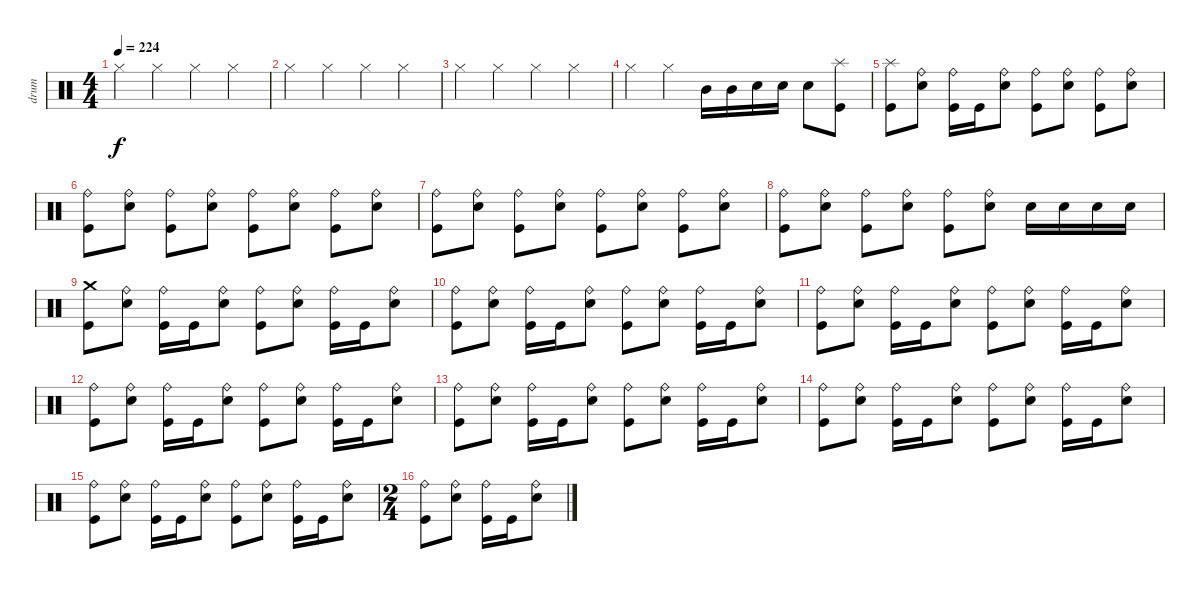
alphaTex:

\track ("drum" "drum") {instrument percussion}
\staff {score}
\articulation defaults
\ts (4 4)
\tempo 224
\clef neutral
\ks c "Hi-Hat (closed)".4{dy f volume 8} "Hi-Hat (closed)".4 "Hi-Hat (closed)".4 "Hi-Hat (closed)".4
|
"Hi-Hat (closed)".4 "Hi-Hat (closed)".4 "Hi-Hat (closed)".4 "Hi-Hat (closed)".4 |
"Hi-Hat (closed)".4 "Hi-Hat (closed)".4 "Hi-Hat (closed)".4 "Hi-Hat (closed)".4 |
"Hi-Hat (closed)".4 "Hi-Hat (closed)".4 "Mid Tom (hit)".16 "Mid Tom (hit)".16 "Electric Snare (hit)".16 "Electric Snare (hit)".16 "Electric Snare (hit)".8 ("Kick (hit)" "Splash (hit)").8 |
("Kick (hit)" "Splash (hit)").8 ("Electric Snare (hit)" "Ride (bell)").8 ("Kick (hit)" "Ride (bell)").16 "Kick (hit)".16 ("Electric Snare (hit)" "Ride (bell)").8 ("Kick (hit)" "Ride (bell)").8 ("Electric Snare (hit)" "Ride (bell)").8 ("Kick (hit)" "Ride (bell)").8 ("Electric Snare (hit)" "Ride (bell)").8 |
("Kick (hit)" "Ride (bell)").8 ("Electric Snare (hit)" "Ride (bell)").8 ("Kick (hit)" "Ride (bell)").8 ("Electric Snare (hit)" "Ride (bell)").8 ("Kick (hit)" "Ride (bell)").8 ("Electric Snare (hit)" "Ride (bell)").8 ("Kick (hit)" "Ride (bell)").8 ("Electric Snare (hit)" "Ride (bell)").8 |
("Kick (hit)" "Ride (bell)").8 ("Electric Snare (hit)" "Ride (bell)").8 ("Kick (hit)" "Ride (bell)").8 ("Electric Snare (hit)" "Ride (bell)").8 ("Kick (hit)" "Ride (bell)").8 ("Electric Snare (hit)" "Ride (bell)").8 ("Kick (hit)" "Ride (bell)").8 ("Electric Snare (hit)" "Ride (bell)").8 |
("Kick (hit)" "Ride (bell)").8 ("Electric Snare (hit)" "Ride (bell)").8 ("Kick (hit)" "Ride (bell)").8 ("Electric Snare (hit)" "Ride (bell)").8 ("Kick (hit)" "Ride (bell)").8 ("Electric Snare (hit)" "Ride (bell)").8 "Electric Snare (hit)".16 "Electric Snare (hit)".16 "Electric Snare (hit)".16 "Electric Snare (hit)".16 |
("Kick (hit)" "Crash medium (hit)").8 ("Electric Snare (hit)" "Ride (bell)").8 ("Kick (hit)" "Ride (bell)").16 "Kick (hit)".16 ("Electric Snare (hit)" "Ride (bell)").8 ("Kick (hit)" "Ride (bell)").8 ("Electric Snare (hit)" "Ride (bell)").8 ("Kick (hit)" "Ride (bell)").16 "Kick (hit)".16 ("Electric Snare (hit)" "Ride (bell)").8 |
("Kick (hit)" "Ride (bell)").8 ("Electric Snare (hit)" "Ride (bell)").8 ("Kick (hit)" "Ride (bell)").16 "Kick (hit)".16 ("Electric Snare (hit)" "Ride (bell)").8 ("Kick (hit)" "Ride (bell)").8 ("Electric Snare (hit)" "Ride (bell)").8 ("Kick (hit)" "Ride (bell)").16 "Kick (hit)".16 ("Electric Snare (hit)" "Ride (bell)").8 |
("Kick (hit)" "Ride (bell)").8 ("Electric Snare (hit)" "Ride (bell)").8 ("Kick (hit)" "Ride (bell)").16 "Kick (hit)".16 ("Electric Snare (hit)" "Ride (bell)").8 ("Kick (hit)" "Ride (bell)").8 ("Electric Snare (hit)" "Ride (bell)").8 ("Kick (hit)" "Ride (bell)").16 "Kick (hit)".16 ("Electric Snare (hit)" "Ride (bell)").8 |
("Kick (hit)" "Ride (bell)").8 ("Electric Snare (hit)" "Ride (bell)").8 ("Kick (hit)" "Ride (bell)").16 "Kick (hit)".16 ("Electric Snare (hit)" "Ride (bell)").8 ("Kick (hit)" "Ride (bell)").8 ("Electric Snare (hit)" "Ride (bell)").8 ("Kick (hit)" "Ride (bell)").16 "Kick (hit)".16 ("Electric Snare (hit)" "Ride (bell)").8 |
("Kick (hit)" "Ride (bell)").8 ("Electric Snare (hit)" "Ride (bell)").8 ("Kick (hit)" "Ride (bell)").16 "Kick (hit)".16 ("Electric Snare (hit)" "Ride (bell)").8 ("Kick (hit)" "Ride (bell)").8 ("Electric Snare (hit)" "Ride (bell)").8 ("Kick (hit)" "Ride (bell)").16 "Kick (hit)".16 ("Electric Snare (hit)" "Ride (bell)").8 |
("Kick (hit)" "Ride (bell)").8 ("Electric Snare (hit)" "Ride (bell)").8 ("Kick (hit)" "Ride (bell)").16 "Kick (hit)".16 ("Electric Snare (hit)" "Ride (bell)").8 ("Kick (hit)" "Ride (bell)").8 ("Electric Snare (hit)" "Ride (bell)").8 ("Kick (hit)" "Ride (bell)").16 "Kick (hit)".16 ("Electric Snare (hit)" "Ride (bell)").8 |
("Kick (hit)" "Ride (bell)").8 ("Electric Snare (hit)" "Ride (bell)").8 ("Kick (hit)" "Ride (bell)").16 "Kick (hit)".16 ("Electric Snare (hit)" "Ride (bell)").8 ("Kick (hit)" "Ride (bell)").8 ("Electric Snare (hit)" "Ride (bell)").8 ("Kick (hit)" "Ride (bell)").16 "Kick (hit)".16 ("Electric Snare (hit)" "Ride (bell)").8 |
\ts (2 4)
("Kick (hit)" "Ride (bell)").8 ("Electric Snare (hit)" "Ride (bell)").8 ("Kick (hit)" "Ride (bell)").16 "Kick (hit)".16 ("Electric Snare (hit)" "Ride (bell)").8
